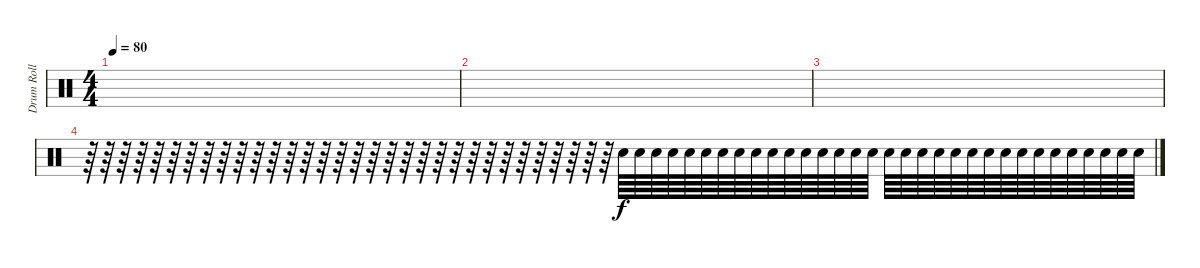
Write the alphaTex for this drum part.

\track ("Drum Roll" "Drum Roll") {instrument percussion}
\staff {score}
\articulation defaults
\ts (4 4)
\tempo 80
\clef neutral
\ks c
|
|
|
r.64 r.64 r.64 r.64 r.64 r.64 r.64 r.64 r.64 r.64 r.64 r.64 r.64 r.64 r.64 r.64 r.64 r.64 r.64 r.64 r.64 r.64 r.64 r.64 r.64 r.64 r.64 r.64 r.64 r.64 r.64 r.64 "Snare (hit) 2".64 "Snare (hit) 2".64 "Snare (hit) 2".64 "Snare (hit) 2".64 "Snare (hit) 2".64 "Snare (hit) 2".64 "Snare (hit) 2".64 "Snare (hit) 2".64 "Snare (hit) 2".64 "Snare (hit) 2".64 "Snare (hit) 2".64 "Snare (hit) 2".64 "Snare (hit) 2".64 "Snare (hit) 2".64 "Snare (hit) 2".64 "Snare (hit) 2".64 "Snare (hit) 2".64 "Snare (hit) 2".64 "Snare (hit) 2".64 "Snare (hit) 2".64 "Snare (hit) 2".64 "Snare (hit) 2".64 "Snare (hit) 2".64 "Snare (hit) 2".64 "Snare (hit) 2".64 "Snare (hit) 2".64 "Snare (hit) 2".64 "Snare (hit) 2".64 "Snare (hit) 2".64 "Snare (hit) 2".64 "Snare (hit) 2".64 "Snare (hit) 2".64
